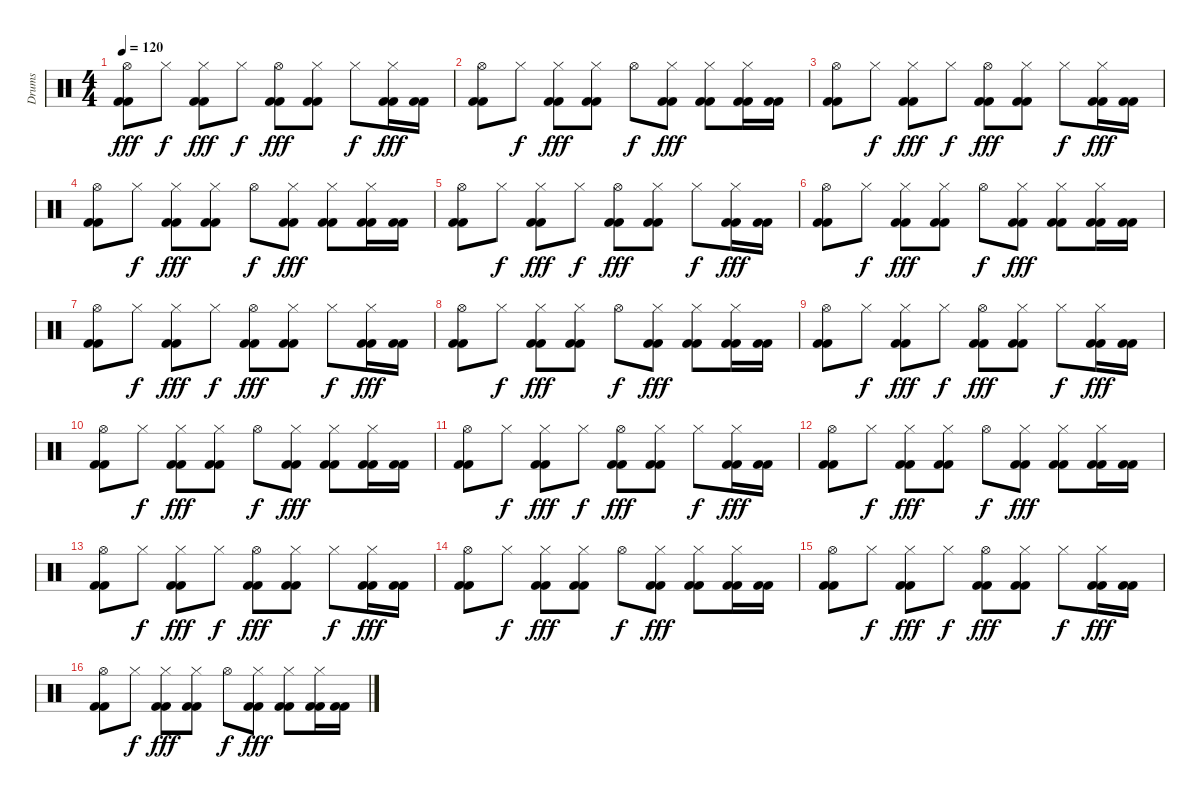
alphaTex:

\track ("Drums" "Drums") {instrument percussion}
\staff {score}
\articulation defaults
\ts (4 4)
\tempo 120
\clef neutral
\ks c
("Hi-Hat (open)" "Kick (hit) 2" "Kick (hit) 2").8{dy fff} "Hi-Hat (closed)".8{dy f} ("Hi-Hat (closed)" "Kick (hit) 2" "Kick (hit) 2").8{dy fff} "Hi-Hat (closed)".8{dy f} ("Hi-Hat (open)" "Kick (hit) 2" "Kick (hit) 2").8{dy fff} ("Hi-Hat (closed)" "Kick (hit) 2" "Kick (hit) 2").8 "Hi-Hat (closed)".8{dy f} ("Hi-Hat (closed)" "Kick (hit) 2" "Kick (hit) 2").16{dy fff} ("Kick (hit) 2" "Kick (hit) 2").16 |
("Hi-Hat (open)" "Kick (hit) 2" "Kick (hit) 2").8 "Hi-Hat (closed)".8{dy f} ("Hi-Hat (closed)" "Kick (hit) 2" "Kick (hit) 2").8{dy fff} ("Hi-Hat (closed)" "Kick (hit) 2" "Kick (hit) 2").8 "Hi-Hat (open)".8{dy f} ("Hi-Hat (closed)" "Kick (hit) 2" "Kick (hit) 2").8{dy fff} ("Hi-Hat (closed)" "Kick (hit) 2" "Kick (hit) 2").8 ("Hi-Hat (closed)" "Kick (hit) 2" "Kick (hit) 2").16 ("Kick (hit) 2" "Kick (hit) 2").16 |
("Hi-Hat (open)" "Kick (hit) 2" "Kick (hit) 2").8 "Hi-Hat (closed)".8{dy f} ("Hi-Hat (closed)" "Kick (hit) 2" "Kick (hit) 2").8{dy fff} "Hi-Hat (closed)".8{dy f} ("Hi-Hat (open)" "Kick (hit) 2" "Kick (hit) 2").8{dy fff} ("Hi-Hat (closed)" "Kick (hit) 2" "Kick (hit) 2").8 "Hi-Hat (closed)".8{dy f} ("Hi-Hat (closed)" "Kick (hit) 2" "Kick (hit) 2").16{dy fff} ("Kick (hit) 2" "Kick (hit) 2").16 |
("Hi-Hat (open)" "Kick (hit) 2" "Kick (hit) 2").8 "Hi-Hat (closed)".8{dy f} ("Hi-Hat (closed)" "Kick (hit) 2" "Kick (hit) 2").8{dy fff} ("Hi-Hat (closed)" "Kick (hit) 2" "Kick (hit) 2").8 "Hi-Hat (open)".8{dy f} ("Hi-Hat (closed)" "Kick (hit) 2" "Kick (hit) 2").8{dy fff} ("Hi-Hat (closed)" "Kick (hit) 2" "Kick (hit) 2").8 ("Hi-Hat (closed)" "Kick (hit) 2" "Kick (hit) 2").16 ("Kick (hit) 2" "Kick (hit) 2").16 |
("Hi-Hat (open)" "Kick (hit) 2" "Kick (hit) 2").8 "Hi-Hat (closed)".8{dy f} ("Hi-Hat (closed)" "Kick (hit) 2" "Kick (hit) 2").8{dy fff} "Hi-Hat (closed)".8{dy f} ("Hi-Hat (open)" "Kick (hit) 2" "Kick (hit) 2").8{dy fff} ("Hi-Hat (closed)" "Kick (hit) 2" "Kick (hit) 2").8 "Hi-Hat (closed)".8{dy f} ("Hi-Hat (closed)" "Kick (hit) 2" "Kick (hit) 2").16{dy fff} ("Kick (hit) 2" "Kick (hit) 2").16 |
("Hi-Hat (open)" "Kick (hit) 2" "Kick (hit) 2").8 "Hi-Hat (closed)".8{dy f} ("Hi-Hat (closed)" "Kick (hit) 2" "Kick (hit) 2").8{dy fff} ("Hi-Hat (closed)" "Kick (hit) 2" "Kick (hit) 2").8 "Hi-Hat (open)".8{dy f} ("Hi-Hat (closed)" "Kick (hit) 2" "Kick (hit) 2").8{dy fff} ("Hi-Hat (closed)" "Kick (hit) 2" "Kick (hit) 2").8 ("Hi-Hat (closed)" "Kick (hit) 2" "Kick (hit) 2").16 ("Kick (hit) 2" "Kick (hit) 2").16 |
("Hi-Hat (open)" "Kick (hit) 2" "Kick (hit) 2").8 "Hi-Hat (closed)".8{dy f} ("Hi-Hat (closed)" "Kick (hit) 2" "Kick (hit) 2").8{dy fff} "Hi-Hat (closed)".8{dy f} ("Hi-Hat (open)" "Kick (hit) 2" "Kick (hit) 2").8{dy fff} ("Hi-Hat (closed)" "Kick (hit) 2" "Kick (hit) 2").8 "Hi-Hat (closed)".8{dy f} ("Hi-Hat (closed)" "Kick (hit) 2" "Kick (hit) 2").16{dy fff} ("Kick (hit) 2" "Kick (hit) 2").16 |
("Hi-Hat (open)" "Kick (hit) 2" "Kick (hit) 2").8 "Hi-Hat (closed)".8{dy f} ("Hi-Hat (closed)" "Kick (hit) 2" "Kick (hit) 2").8{dy fff} ("Hi-Hat (closed)" "Kick (hit) 2" "Kick (hit) 2").8 "Hi-Hat (open)".8{dy f} ("Hi-Hat (closed)" "Kick (hit) 2" "Kick (hit) 2").8{dy fff} ("Hi-Hat (closed)" "Kick (hit) 2" "Kick (hit) 2").8 ("Hi-Hat (closed)" "Kick (hit) 2" "Kick (hit) 2").16 ("Kick (hit) 2" "Kick (hit) 2").16 |
("Hi-Hat (open)" "Kick (hit) 2" "Kick (hit) 2").8 "Hi-Hat (closed)".8{dy f} ("Hi-Hat (closed)" "Kick (hit) 2" "Kick (hit) 2").8{dy fff} "Hi-Hat (closed)".8{dy f} ("Hi-Hat (open)" "Kick (hit) 2" "Kick (hit) 2").8{dy fff} ("Hi-Hat (closed)" "Kick (hit) 2" "Kick (hit) 2").8 "Hi-Hat (closed)".8{dy f} ("Hi-Hat (closed)" "Kick (hit) 2" "Kick (hit) 2").16{dy fff} ("Kick (hit) 2" "Kick (hit) 2").16 |
("Hi-Hat (open)" "Kick (hit) 2" "Kick (hit) 2").8 "Hi-Hat (closed)".8{dy f} ("Hi-Hat (closed)" "Kick (hit) 2" "Kick (hit) 2").8{dy fff} ("Hi-Hat (closed)" "Kick (hit) 2" "Kick (hit) 2").8 "Hi-Hat (open)".8{dy f} ("Hi-Hat (closed)" "Kick (hit) 2" "Kick (hit) 2").8{dy fff} ("Hi-Hat (closed)" "Kick (hit) 2" "Kick (hit) 2").8 ("Hi-Hat (closed)" "Kick (hit) 2" "Kick (hit) 2").16 ("Kick (hit) 2" "Kick (hit) 2").16 |
("Hi-Hat (open)" "Kick (hit) 2" "Kick (hit) 2").8 "Hi-Hat (closed)".8{dy f} ("Hi-Hat (closed)" "Kick (hit) 2" "Kick (hit) 2").8{dy fff} "Hi-Hat (closed)".8{dy f} ("Hi-Hat (open)" "Kick (hit) 2" "Kick (hit) 2").8{dy fff} ("Hi-Hat (closed)" "Kick (hit) 2" "Kick (hit) 2").8 "Hi-Hat (closed)".8{dy f} ("Hi-Hat (closed)" "Kick (hit) 2" "Kick (hit) 2").16{dy fff} ("Kick (hit) 2" "Kick (hit) 2").16 |
("Hi-Hat (open)" "Kick (hit) 2" "Kick (hit) 2").8 "Hi-Hat (closed)".8{dy f} ("Hi-Hat (closed)" "Kick (hit) 2" "Kick (hit) 2").8{dy fff} ("Hi-Hat (closed)" "Kick (hit) 2" "Kick (hit) 2").8 "Hi-Hat (open)".8{dy f} ("Hi-Hat (closed)" "Kick (hit) 2" "Kick (hit) 2").8{dy fff} ("Hi-Hat (closed)" "Kick (hit) 2" "Kick (hit) 2").8 ("Hi-Hat (closed)" "Kick (hit) 2" "Kick (hit) 2").16 ("Kick (hit) 2" "Kick (hit) 2").16 |
("Hi-Hat (open)" "Kick (hit) 2" "Kick (hit) 2").8 "Hi-Hat (closed)".8{dy f} ("Hi-Hat (closed)" "Kick (hit) 2" "Kick (hit) 2").8{dy fff} "Hi-Hat (closed)".8{dy f} ("Hi-Hat (open)" "Kick (hit) 2" "Kick (hit) 2").8{dy fff} ("Hi-Hat (closed)" "Kick (hit) 2" "Kick (hit) 2").8 "Hi-Hat (closed)".8{dy f} ("Hi-Hat (closed)" "Kick (hit) 2" "Kick (hit) 2").16{dy fff} ("Kick (hit) 2" "Kick (hit) 2").16 |
("Hi-Hat (open)" "Kick (hit) 2" "Kick (hit) 2").8 "Hi-Hat (closed)".8{dy f} ("Hi-Hat (closed)" "Kick (hit) 2" "Kick (hit) 2").8{dy fff} ("Hi-Hat (closed)" "Kick (hit) 2" "Kick (hit) 2").8 "Hi-Hat (open)".8{dy f} ("Hi-Hat (closed)" "Kick (hit) 2" "Kick (hit) 2").8{dy fff} ("Hi-Hat (closed)" "Kick (hit) 2" "Kick (hit) 2").8 ("Hi-Hat (closed)" "Kick (hit) 2" "Kick (hit) 2").16 ("Kick (hit) 2" "Kick (hit) 2").16 |
("Hi-Hat (open)" "Kick (hit) 2" "Kick (hit) 2").8 "Hi-Hat (closed)".8{dy f} ("Hi-Hat (closed)" "Kick (hit) 2" "Kick (hit) 2").8{dy fff} "Hi-Hat (closed)".8{dy f} ("Hi-Hat (open)" "Kick (hit) 2" "Kick (hit) 2").8{dy fff} ("Hi-Hat (closed)" "Kick (hit) 2" "Kick (hit) 2").8 "Hi-Hat (closed)".8{dy f} ("Hi-Hat (closed)" "Kick (hit) 2" "Kick (hit) 2").16{dy fff} ("Kick (hit) 2" "Kick (hit) 2").16 |
("Hi-Hat (open)" "Kick (hit) 2" "Kick (hit) 2").8 "Hi-Hat (closed)".8{dy f} ("Hi-Hat (closed)" "Kick (hit) 2" "Kick (hit) 2").8{dy fff} ("Hi-Hat (closed)" "Kick (hit) 2" "Kick (hit) 2").8 "Hi-Hat (open)".8{dy f} ("Hi-Hat (closed)" "Kick (hit) 2" "Kick (hit) 2").8{dy fff} ("Hi-Hat (closed)" "Kick (hit) 2" "Kick (hit) 2").8 ("Hi-Hat (closed)" "Kick (hit) 2" "Kick (hit) 2").16 ("Kick (hit) 2" "Kick (hit) 2").16
